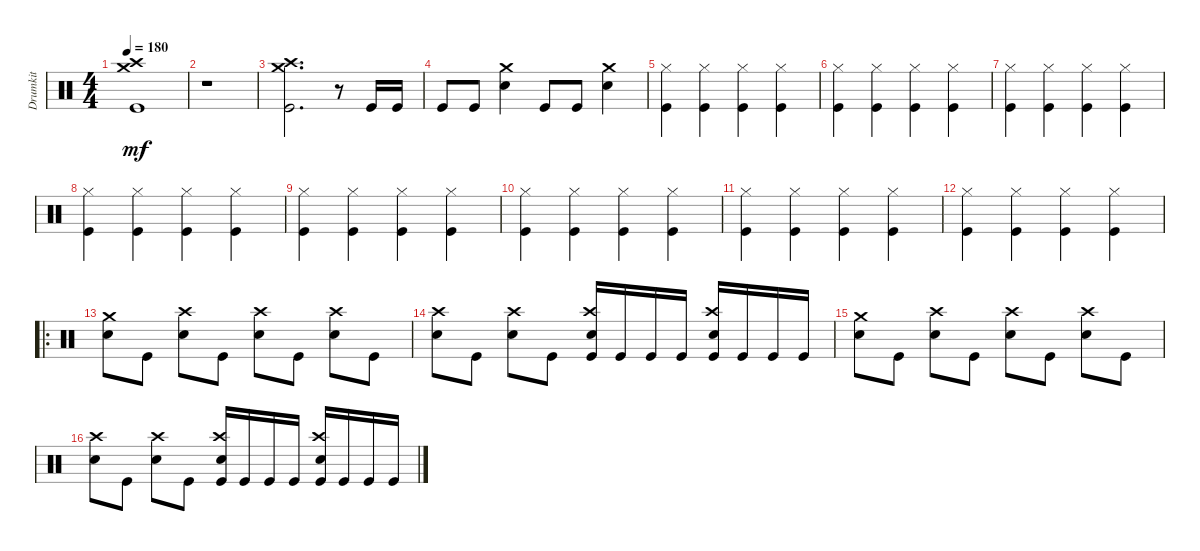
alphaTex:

\track ("Drumkit" "Drumkit") {instrument percussion}
\staff {score}
\articulation defaults
\ts (4 4)
\tempo 180
\clef neutral
\ks c
("Kick (hit)" "Crash medium (hit)" "Crash high (hit)").1{dy mf} |
r.1 |
("Kick (hit)" "Crash medium (hit)" "Crash high (hit)").2{d} r.8 "Kick (hit)".16 "Kick (hit)".16 |
"Kick (hit)".8 "Kick (hit)".8 ("Snare (hit) 2" "Crash medium (hit)").4 "Kick (hit)".8 "Kick (hit)".8 ("Snare (hit) 2" "Crash medium (hit)").4 |
("Hi-Hat (closed)" "Kick (hit)").4 ("Hi-Hat (closed)" "Kick (hit)").4 ("Hi-Hat (closed)" "Kick (hit)").4 ("Hi-Hat (closed)" "Kick (hit)").4 |
("Hi-Hat (closed)" "Kick (hit)").4 ("Hi-Hat (closed)" "Kick (hit)").4 ("Hi-Hat (closed)" "Kick (hit)").4 ("Hi-Hat (closed)" "Kick (hit)").4 |
("Hi-Hat (closed)" "Kick (hit)").4 ("Hi-Hat (closed)" "Kick (hit)").4 ("Hi-Hat (closed)" "Kick (hit)").4 ("Hi-Hat (closed)" "Kick (hit)").4 |
("Hi-Hat (closed)" "Kick (hit)").4 ("Hi-Hat (closed)" "Kick (hit)").4 ("Hi-Hat (closed)" "Kick (hit)").4 ("Hi-Hat (closed)" "Kick (hit)").4 |
("Hi-Hat (closed)" "Kick (hit)").4 ("Hi-Hat (closed)" "Kick (hit)").4 ("Hi-Hat (closed)" "Kick (hit)").4 ("Hi-Hat (closed)" "Kick (hit)").4 |
("Hi-Hat (closed)" "Kick (hit)").4 ("Hi-Hat (closed)" "Kick (hit)").4 ("Hi-Hat (closed)" "Kick (hit)").4 ("Hi-Hat (closed)" "Kick (hit)").4 |
("Hi-Hat (closed)" "Kick (hit)").4 ("Hi-Hat (closed)" "Kick (hit)").4 ("Hi-Hat (closed)" "Kick (hit)").4 ("Hi-Hat (closed)" "Kick (hit)").4 |
("Hi-Hat (closed)" "Kick (hit)").4 ("Hi-Hat (closed)" "Kick (hit)").4 ("Hi-Hat (closed)" "Kick (hit)").4 ("Hi-Hat (closed)" "Kick (hit)").4 |
\ro
("Snare (hit) 2" "Crash medium (hit)").8 "Kick (hit)".8 ("Snare (hit) 2" "Crash high (hit)").8 "Kick (hit)".8 ("Snare (hit) 2" "Crash high (hit)").8 "Kick (hit)".8 ("Snare (hit) 2" "Crash high (hit)").8 "Kick (hit)".8 |
("Snare (hit) 2" "Crash high (hit)").8 "Kick (hit)".8 ("Snare (hit) 2" "Crash high (hit)").8 "Kick (hit)".8 ("Snare (hit) 2" "Crash high (hit)" "Kick (hit)").16 "Kick (hit)".16 "Kick (hit)".16 "Kick (hit)".16 ("Snare (hit) 2" "Crash high (hit)" "Kick (hit)").16 "Kick (hit)".16 "Kick (hit)".16 "Kick (hit)".16 |
("Snare (hit) 2" "Crash medium (hit)").8 "Kick (hit)".8 ("Snare (hit) 2" "Crash high (hit)").8 "Kick (hit)".8 ("Snare (hit) 2" "Crash high (hit)").8 "Kick (hit)".8 ("Snare (hit) 2" "Crash high (hit)").8 "Kick (hit)".8 |
("Snare (hit) 2" "Crash high (hit)").8 "Kick (hit)".8 ("Snare (hit) 2" "Crash high (hit)").8 "Kick (hit)".8 ("Kick (hit)" "Snare (hit) 2" "Crash high (hit)").16 "Kick (hit)".16 "Kick (hit)".16 "Kick (hit)".16 ("Kick (hit)" "Snare (hit) 2" "Crash high (hit)").16 "Kick (hit)".16 "Kick (hit)".16 "Kick (hit)".16
